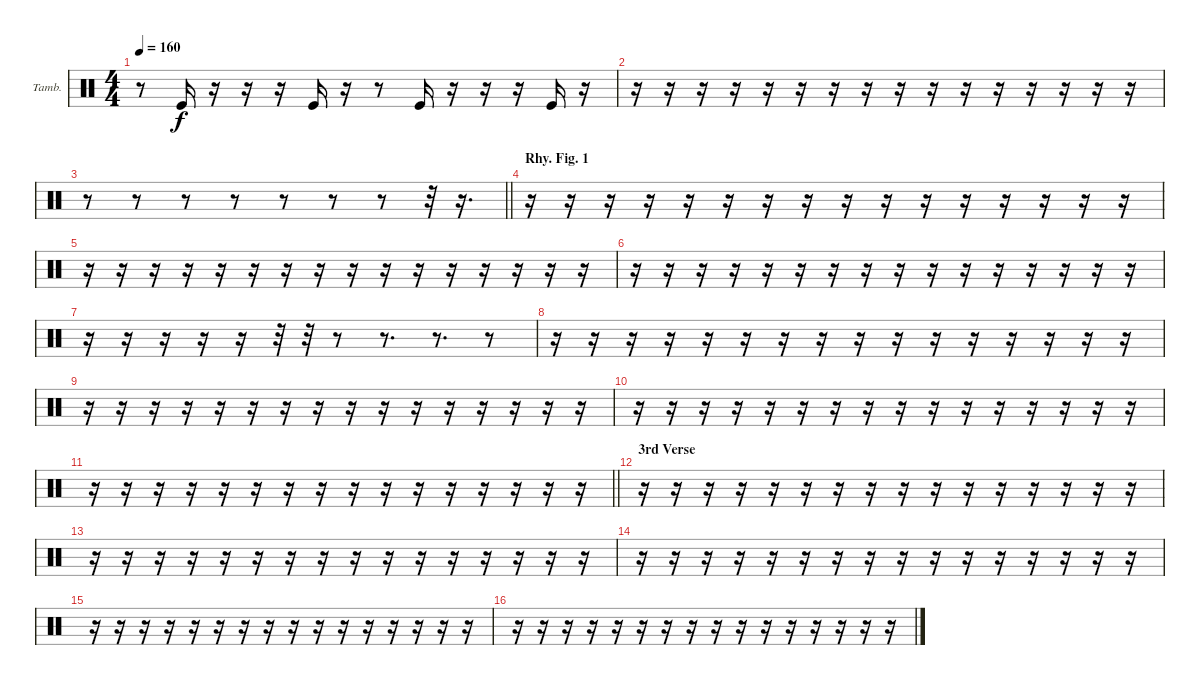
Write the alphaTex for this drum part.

\bracketExtendMode groupsimilarinstruments
\firstSystemTrackNameOrientation horizontal
\otherSystemsTrackNameOrientation horizontal
\track ("Tambourine" "Tamb.") {mute instrument percussion}
\staff {score}
\articulation defaults
\ts (4 4)
\tempo 160
\clef neutral
\ks c
r.8{dy f} "Kick (hit)".16 r.16 r.16 r.16 "Kick (hit)".16 r.16 r.8 "Kick (hit)".16 r.16 r.16 r.16 "Kick (hit)".16 r.16 |
r.16 r.16 r.16 r.16 r.16 r.16 r.16 r.16 r.16 r.16 r.16 r.16 r.16 r.16 r.16 r.16 |
\barLineRight lightlight
r.8 r.8 r.8 r.8 r.8 r.8 r.8 r.32 r.16{d} |
\section ("" "Rhy. Fig. 1")
r.16 r.16 r.16 r.16 r.16 r.16 r.16 r.16 r.16 r.16 r.16 r.16 r.16 r.16 r.16 r.16 |
r.16 r.16 r.16 r.16 r.16 r.16 r.16 r.16 r.16 r.16 r.16 r.16 r.16 r.16 r.16 r.16 |
r.16 r.16 r.16 r.16 r.16 r.16 r.16 r.16 r.16 r.16 r.16 r.16 r.16 r.16 r.16 r.16 |
r.16 r.16 r.16 r.16 r.16 r.32 r.32 r.8 r.8{d} r.8{d} r.8 |
r.16 r.16 r.16 r.16 r.16 r.16 r.16 r.16 r.16 r.16 r.16 r.16 r.16 r.16 r.16 r.16 |
r.16 r.16 r.16 r.16 r.16 r.16 r.16 r.16 r.16 r.16 r.16 r.16 r.16 r.16 r.16 r.16 |
r.16 r.16 r.16 r.16 r.16 r.16 r.16 r.16 r.16 r.16 r.16 r.16 r.16 r.16 r.16 r.16 |
\barLineRight lightlight
r.16 r.16 r.16 r.16 r.16 r.16 r.16 r.16 r.16 r.16 r.16 r.16 r.16 r.16 r.16 r.16 |
\section ("" "3rd Verse")
r.16 r.16 r.16 r.16 r.16 r.16 r.16 r.16 r.16 r.16 r.16 r.16 r.16 r.16 r.16 r.16 |
r.16 r.16 r.16 r.16 r.16 r.16 r.16 r.16 r.16 r.16 r.16 r.16 r.16 r.16 r.16 r.16 |
r.16 r.16 r.16 r.16 r.16 r.16 r.16 r.16 r.16 r.16 r.16 r.16 r.16 r.16 r.16 r.16 |
r.16 r.16 r.16 r.16 r.16 r.16 r.16 r.16 r.16 r.16 r.16 r.16 r.16 r.16 r.16 r.16 |
r.16 r.16 r.16 r.16 r.16 r.16 r.16 r.16 r.16 r.16 r.16 r.16 r.16 r.16 r.16 r.16
